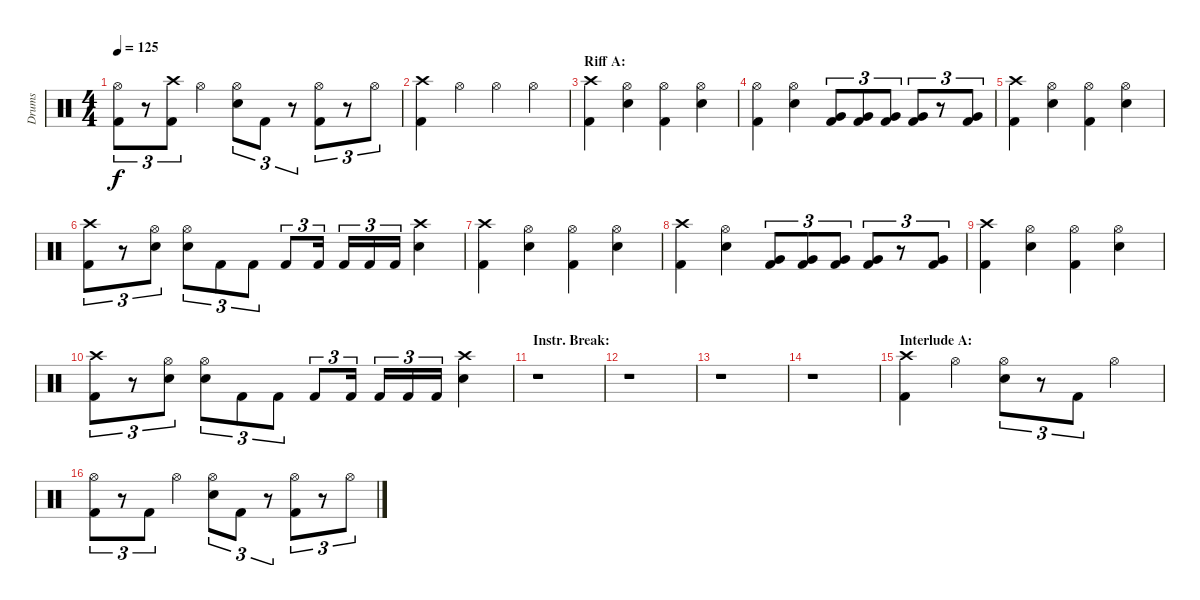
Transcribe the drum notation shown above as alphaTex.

\track ("Drums" "Drums") {instrument percussion}
\staff {score}
\articulation defaults
\ts (4 4)
\tempo 125
\clef neutral
\ks c
("Hi-Hat (open)" "Kick (hit) 2").8{tu (3 2) dy f} r.8{tu (3 2)} ("Crash high (hit)" "Kick (hit) 2").8{tu (3 2)} "Hi-Hat (open)".4 ("Hi-Hat (open)" "Electric Snare (hit)").8{tu (3 2)} "Kick (hit) 2".8{tu (3 2)} r.8{tu (3 2)} ("Hi-Hat (open)" "Kick (hit) 2").8{tu (3 2)} r.8{tu (3 2)} "Hi-Hat (open)".8{tu (3 2)} |
("Crash high (hit)" "Kick (hit) 2").4 "Hi-Hat (open)".4 "Hi-Hat (open)".4 "Hi-Hat (open)".4 |
\section ("" "Riff A:")
("Crash high (hit)" "Kick (hit) 2").4 ("Hi-Hat (open)" "Electric Snare (hit)").4 ("Hi-Hat (open)" "Kick (hit) 2").4 ("Hi-Hat (open)" "Electric Snare (hit)").4 |
("Hi-Hat (open)" "Kick (hit) 2").4 ("Hi-Hat (open)" "Electric Snare (hit)").4 ("Very Low Tom (hit)" "Kick (hit) 2").8{tu (3 2)} ("Very Low Tom (hit)" "Kick (hit) 2").8{tu (3 2)} ("Very Low Tom (hit)" "Kick (hit) 2").8{tu (3 2)} ("Very Low Tom (hit)" "Kick (hit) 2").8{tu (3 2)} r.8{tu (3 2)} ("Very Low Tom (hit)" "Kick (hit) 2").8{tu (3 2)} |
("Crash high (hit)" "Kick (hit) 2").4 ("Hi-Hat (open)" "Electric Snare (hit)").4 ("Hi-Hat (open)" "Kick (hit) 2").4 ("Hi-Hat (open)" "Electric Snare (hit)").4 |
("Crash high (hit)" "Kick (hit) 2").8{tu (3 2)} r.8{tu (3 2)} ("Hi-Hat (open)" "Electric Snare (hit)").8{tu (3 2)} ("Hi-Hat (open)" "Electric Snare (hit)").8{tu (3 2)} "Kick (hit) 2".8{tu (3 2)} "Kick (hit) 2".8{tu (3 2)} "Kick (hit) 2".8{tu (3 2)} "Kick (hit) 2".16{tu (3 2)} "Kick (hit) 2".16{tu (3 2)} "Kick (hit) 2".16{tu (3 2)} "Kick (hit) 2".16{tu (3 2)} ("Crash high (hit)" "Electric Snare (hit)").4 |
("Crash high (hit)" "Kick (hit) 2").4 ("Hi-Hat (open)" "Electric Snare (hit)").4 ("Hi-Hat (open)" "Kick (hit) 2").4 ("Hi-Hat (open)" "Electric Snare (hit)").4 |
("Crash high (hit)" "Kick (hit) 2").4 ("Hi-Hat (open)" "Electric Snare (hit)").4 ("Very Low Tom (hit)" "Kick (hit) 2").8{tu (3 2)} ("Very Low Tom (hit)" "Kick (hit) 2").8{tu (3 2)} ("Very Low Tom (hit)" "Kick (hit) 2").8{tu (3 2)} ("Very Low Tom (hit)" "Kick (hit) 2").8{tu (3 2)} r.8{tu (3 2)} ("Very Low Tom (hit)" "Kick (hit) 2").8{tu (3 2)} |
("Crash high (hit)" "Kick (hit) 2").4 ("Hi-Hat (open)" "Electric Snare (hit)").4 ("Hi-Hat (open)" "Kick (hit) 2").4 ("Hi-Hat (open)" "Electric Snare (hit)").4 |
("Crash high (hit)" "Kick (hit) 2").8{tu (3 2)} r.8{tu (3 2)} ("Hi-Hat (open)" "Electric Snare (hit)").8{tu (3 2)} ("Hi-Hat (open)" "Electric Snare (hit)").8{tu (3 2)} "Kick (hit) 2".8{tu (3 2)} "Kick (hit) 2".8{tu (3 2)} "Kick (hit) 2".8{tu (3 2)} "Kick (hit) 2".16{tu (3 2)} "Kick (hit) 2".16{tu (3 2)} "Kick (hit) 2".16{tu (3 2)} "Kick (hit) 2".16{tu (3 2)} ("Crash high (hit)" "Electric Snare (hit)").4 |
\section ("" "Instr. Break:")
r.1 |
r.1 |
r.1 |
r.1 |
\section ("" "Interlude A:")
("Crash high (hit)" "Kick (hit) 2").4 "Hi-Hat (open)".4 ("Hi-Hat (open)" "Electric Snare (hit)").8{tu (3 2)} r.8{tu (3 2)} "Kick (hit) 2".8{tu (3 2)} "Hi-Hat (open)".4 |
("Hi-Hat (open)" "Kick (hit) 2").8{tu (3 2)} r.8{tu (3 2)} "Kick (hit) 2".8{tu (3 2)} "Hi-Hat (open)".4 ("Hi-Hat (open)" "Electric Snare (hit)").8{tu (3 2)} "Kick (hit) 2".8{tu (3 2)} r.8{tu (3 2)} ("Hi-Hat (open)" "Kick (hit) 2").8{tu (3 2)} r.8{tu (3 2)} "Hi-Hat (open)".8{tu (3 2)}
